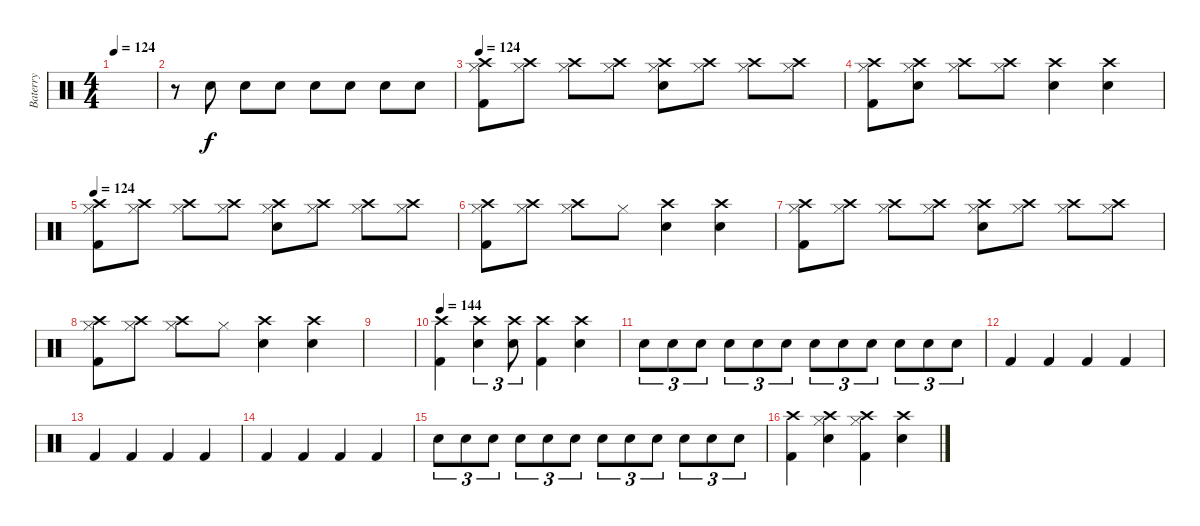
\track ("Baterry" "Baterry") {instrument percussion}
\staff {score}
\articulation defaults
\ts (4 4)
\tempo 124
\clef neutral
\ks c
|
r.8 "Electric Snare (hit)".8 "Electric Snare (hit)".8 "Electric Snare (hit)".8 "Electric Snare (hit)".8 "Electric Snare (hit)".8 "Electric Snare (hit)".8 "Electric Snare (hit)".8 |
\tempo 124
("Crash high (hit)" "Hi-Hat (closed)" "Kick (hit) 2").8 ("Crash high (hit)" "Hi-Hat (closed)").8 ("Crash high (hit)" "Hi-Hat (closed)").8 ("Crash high (hit)" "Hi-Hat (closed)").8 ("Crash high (hit)" "Hi-Hat (closed)" "Electric Snare (hit)").8 ("Crash high (hit)" "Hi-Hat (closed)").8 ("Crash high (hit)" "Hi-Hat (closed)").8 ("Crash high (hit)" "Hi-Hat (closed)").8 |
("Crash high (hit)" "Hi-Hat (closed)" "Kick (hit) 2").8 ("Snare (hit)" "Crash high (hit)" "Hi-Hat (closed)").8 ("Crash high (hit)" "Hi-Hat (closed)").8 ("Crash high (hit)" "Hi-Hat (closed)").8 ("Crash high (hit)" "Electric Snare (hit)").4 ("Crash high (hit)" "Electric Snare (hit)").4 |
\tempo 124
("Crash high (hit)" "Hi-Hat (closed)" "Kick (hit) 2").8 ("Crash high (hit)" "Hi-Hat (closed)").8 ("Crash high (hit)" "Hi-Hat (closed)").8 ("Crash high (hit)" "Hi-Hat (closed)").8 ("Crash high (hit)" "Hi-Hat (closed)" "Electric Snare (hit)").8 ("Crash high (hit)" "Hi-Hat (closed)").8 ("Crash high (hit)" "Hi-Hat (closed)").8 ("Crash high (hit)" "Hi-Hat (closed)").8 |
("Crash high (hit)" "Hi-Hat (closed)" "Kick (hit) 2").8 ("Crash high (hit)" "Hi-Hat (closed)").8 ("Crash high (hit)" "Hi-Hat (closed)").8 "Hi-Hat (closed)".8 ("Crash high (hit)" "Electric Snare (hit)").4 ("Crash high (hit)" "Electric Snare (hit)").4 |
("Crash high (hit)" "Hi-Hat (closed)" "Kick (hit) 2").8 ("Crash high (hit)" "Hi-Hat (closed)").8 ("Crash high (hit)" "Hi-Hat (closed)").8 ("Crash high (hit)" "Hi-Hat (closed)").8 ("Crash high (hit)" "Hi-Hat (closed)" "Electric Snare (hit)").8 ("Crash high (hit)" "Hi-Hat (closed)").8 ("Crash high (hit)" "Hi-Hat (closed)").8 ("Crash high (hit)" "Hi-Hat (closed)").8 |
("Crash high (hit)" "Hi-Hat (closed)" "Kick (hit) 2").8 ("Crash high (hit)" "Hi-Hat (closed)").8 ("Crash high (hit)" "Hi-Hat (closed)").8 "Hi-Hat (closed)".8 ("Crash high (hit)" "Electric Snare (hit)").4 ("Crash high (hit)" "Electric Snare (hit)").4 |
|
\tempo 144
("Kick (hit) 2" "Crash high (hit)").4 ("Electric Snare (hit)" "Crash high (hit)").4{tu (3 2)} ("Electric Snare (hit)" "Crash high (hit)").8{tu (3 2)} ("Kick (hit) 2" "Crash high (hit)").4 ("Electric Snare (hit)" "Crash high (hit)").4 |
"Electric Snare (hit)".8{tu (3 2)} "Electric Snare (hit)".8{tu (3 2)} "Electric Snare (hit)".8{tu (3 2)} "Electric Snare (hit)".8{tu (3 2)} "Electric Snare (hit)".8{tu (3 2)} "Electric Snare (hit)".8{tu (3 2)} "Electric Snare (hit)".8{tu (3 2)} "Electric Snare (hit)".8{tu (3 2)} "Electric Snare (hit)".8{tu (3 2)} "Electric Snare (hit)".8{tu (3 2)} "Electric Snare (hit)".8{tu (3 2)} "Electric Snare (hit)".8{tu (3 2)} |
"Kick (hit) 2".4 "Kick (hit) 2".4 "Kick (hit) 2".4 "Kick (hit) 2".4 |
"Kick (hit) 2".4 "Kick (hit) 2".4 "Kick (hit) 2".4 "Kick (hit) 2".4 |
"Kick (hit) 2".4 "Kick (hit) 2".4 "Kick (hit) 2".4 "Kick (hit) 2".4 |
"Electric Snare (hit)".8{tu (3 2)} "Electric Snare (hit)".8{tu (3 2)} "Electric Snare (hit)".8{tu (3 2)} "Electric Snare (hit)".8{tu (3 2)} "Electric Snare (hit)".8{tu (3 2)} "Electric Snare (hit)".8{tu (3 2)} "Electric Snare (hit)".8{tu (3 2)} "Electric Snare (hit)".8{tu (3 2)} "Electric Snare (hit)".8{tu (3 2)} "Electric Snare (hit)".8{tu (3 2)} "Electric Snare (hit)".8{tu (3 2)} "Electric Snare (hit)".8{tu (3 2)} |
("Crash high (hit)" "Kick (hit) 2").4 ("Hi-Hat (closed)" "Crash high (hit)" "Electric Snare (hit)").4 ("Hi-Hat (closed)" "Crash high (hit)" "Kick (hit) 2").4 ("Crash high (hit)" "Electric Snare (hit)").4
